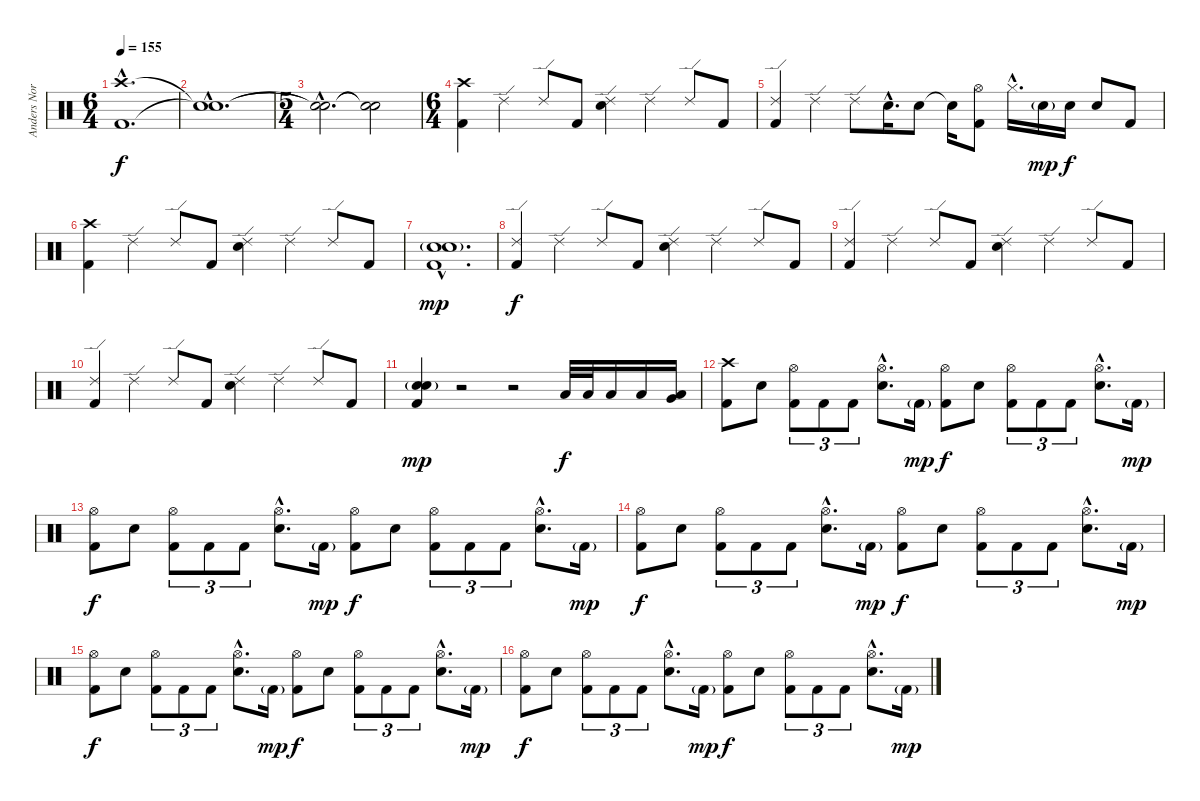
\track ("Anders Nordin" "Anders Nor") {instrument percussion}
\staff {score}
\articulation defaults
\ts (6 4)
\tempo 155
\clef neutral
\ks c
("Kick (hit) 2"{hac} "Crash high (hit)"{hac}).1{d dy f} |
("Snare (hit)"{hac t} "Snare (hit)"{hac t}).1{d} |
\ts (5 4)
("Snare (hit)"{hac t} "Snare (hit)"{hac t}).2{d} ("Snare (hit)"{t} "Snare (hit)"{t}).2 |
\ts (6 4)
("Kick (hit) 2" "Crash high (hit)").4 "Ride (edge) 2".4 "Ride (edge) 2".8 "Kick (hit) 2".8 ("Electric Snare (hit)" "Ride (edge) 2").4 "Ride (edge) 2".4 "Ride (edge) 2".8 "Kick (hit) 2".8 |
("Kick (hit) 2" "Ride (edge) 2").4 "Ride (edge) 2".4 "Ride (edge) 2".8 "Electric Snare (hit)"{hac}.16{d} "Electric Snare (hit)".8 "Snare (hit)"{t}.16 ("Kick (hit) 2" "Hi-Hat (open)").8 "Hi-Hat (closed)"{hac}.16{d} "Electric Snare (hit)"{g}.16{dy mp} "Electric Snare (hit)".16{dy f} "Electric Snare (hit)".8 "Kick (hit) 2".8 |
("Kick (hit) 2" "Crash high (hit)").4 "Ride (edge) 2".4 "Ride (edge) 2".8 "Kick (hit) 2".8 ("Electric Snare (hit)" "Ride (edge) 2").4 "Ride (edge) 2".4 "Ride (edge) 2".8 "Kick (hit) 2".8 |
("Kick (hit) 2"{hac} "Electric Snare (hit)"{hac} "Electric Snare (hit)"{g hac}).1{d dy mp} |
("Kick (hit) 2" "Ride (edge) 2").4{dy f} "Ride (edge) 2".4 "Ride (edge) 2".8 "Kick (hit) 2".8 ("Electric Snare (hit)" "Ride (edge) 2").4 "Ride (edge) 2".4 "Ride (edge) 2".8 "Kick (hit) 2".8 |
("Kick (hit) 2" "Ride (edge) 2").4 "Ride (edge) 2".4 "Ride (edge) 2".8 "Kick (hit) 2".8 ("Electric Snare (hit)" "Ride (edge) 2").4 "Ride (edge) 2".4 "Ride (edge) 2".8 "Kick (hit) 2".8 |
("Kick (hit) 2" "Ride (edge) 2").4 "Ride (edge) 2".4 "Ride (edge) 2".8 "Kick (hit) 2".8 ("Electric Snare (hit)" "Ride (edge) 2").4 "Ride (edge) 2".4 "Ride (edge) 2".8 "Kick (hit) 2".8 |
("Kick (hit) 2" "Electric Snare (hit)" "Electric Snare (hit)"{g}).4{dy mp} r.2 r.2 "Low Tom (hit)".32{dy f} "Low Tom (hit)".32 "Low Tom (hit)".16 "Low Tom (hit)".16 ("Low Tom (hit)" "Very Low Tom (hit)").16 |
("Kick (hit) 2" "Crash high (hit)").8 "Electric Snare (hit)".8 ("Kick (hit) 2" "Hi-Hat (open)").8{tu (3 2)} "Kick (hit) 2".8{tu (3 2)} "Kick (hit) 2".8{tu (3 2)} ("Electric Snare (hit)"{hac} "Hi-Hat (open)"{hac}).8{d} "Kick (hit) 2"{g}.16{dy mp} ("Kick (hit) 2" "Hi-Hat (open)").8{dy f} "Electric Snare (hit)".8 ("Kick (hit) 2" "Hi-Hat (open)").8{tu (3 2)} "Kick (hit) 2".8{tu (3 2)} "Kick (hit) 2".8{tu (3 2)} ("Electric Snare (hit)"{hac} "Hi-Hat (open)"{hac}).8{d} "Kick (hit) 2"{g}.16{dy mp} |
("Kick (hit) 2" "Hi-Hat (open)").8{dy f} "Electric Snare (hit)".8 ("Kick (hit) 2" "Hi-Hat (open)").8{tu (3 2)} "Kick (hit) 2".8{tu (3 2)} "Kick (hit) 2".8{tu (3 2)} ("Electric Snare (hit)"{hac} "Hi-Hat (open)"{hac}).8{d} "Kick (hit) 2"{g}.16{dy mp} ("Kick (hit) 2" "Hi-Hat (open)").8{dy f} "Electric Snare (hit)".8 ("Kick (hit) 2" "Hi-Hat (open)").8{tu (3 2)} "Kick (hit) 2".8{tu (3 2)} "Kick (hit) 2".8{tu (3 2)} ("Electric Snare (hit)"{hac} "Hi-Hat (open)"{hac}).8{d} "Kick (hit) 2"{g}.16{dy mp} |
("Kick (hit) 2" "Hi-Hat (open)").8{dy f} "Electric Snare (hit)".8 ("Kick (hit) 2" "Hi-Hat (open)").8{tu (3 2)} "Kick (hit) 2".8{tu (3 2)} "Kick (hit) 2".8{tu (3 2)} ("Electric Snare (hit)"{hac} "Hi-Hat (open)"{hac}).8{d} "Kick (hit) 2"{g}.16{dy mp} ("Kick (hit) 2" "Hi-Hat (open)").8{dy f} "Electric Snare (hit)".8 ("Kick (hit) 2" "Hi-Hat (open)").8{tu (3 2)} "Kick (hit) 2".8{tu (3 2)} "Kick (hit) 2".8{tu (3 2)} ("Electric Snare (hit)"{hac} "Hi-Hat (open)"{hac}).8{d} "Kick (hit) 2"{g}.16{dy mp} |
("Kick (hit) 2" "Hi-Hat (open)").8{dy f} "Electric Snare (hit)".8 ("Kick (hit) 2" "Hi-Hat (open)").8{tu (3 2)} "Kick (hit) 2".8{tu (3 2)} "Kick (hit) 2".8{tu (3 2)} ("Electric Snare (hit)"{hac} "Hi-Hat (open)"{hac}).8{d} "Kick (hit) 2"{g}.16{dy mp} ("Kick (hit) 2" "Hi-Hat (open)").8{dy f} "Electric Snare (hit)".8 ("Kick (hit) 2" "Hi-Hat (open)").8{tu (3 2)} "Kick (hit) 2".8{tu (3 2)} "Kick (hit) 2".8{tu (3 2)} ("Electric Snare (hit)"{hac} "Hi-Hat (open)"{hac}).8{d} "Kick (hit) 2"{g}.16{dy mp} |
("Kick (hit) 2" "Hi-Hat (open)").8{dy f} "Electric Snare (hit)".8 ("Kick (hit) 2" "Hi-Hat (open)").8{tu (3 2)} "Kick (hit) 2".8{tu (3 2)} "Kick (hit) 2".8{tu (3 2)} ("Electric Snare (hit)"{hac} "Hi-Hat (open)"{hac}).8{d} "Kick (hit) 2"{g}.16{dy mp} ("Kick (hit) 2" "Hi-Hat (open)").8{dy f} "Electric Snare (hit)".8 ("Kick (hit) 2" "Hi-Hat (open)").8{tu (3 2)} "Kick (hit) 2".8{tu (3 2)} "Kick (hit) 2".8{tu (3 2)} ("Electric Snare (hit)"{hac} "Hi-Hat (open)"{hac}).8{d} "Kick (hit) 2"{g}.16{dy mp}
